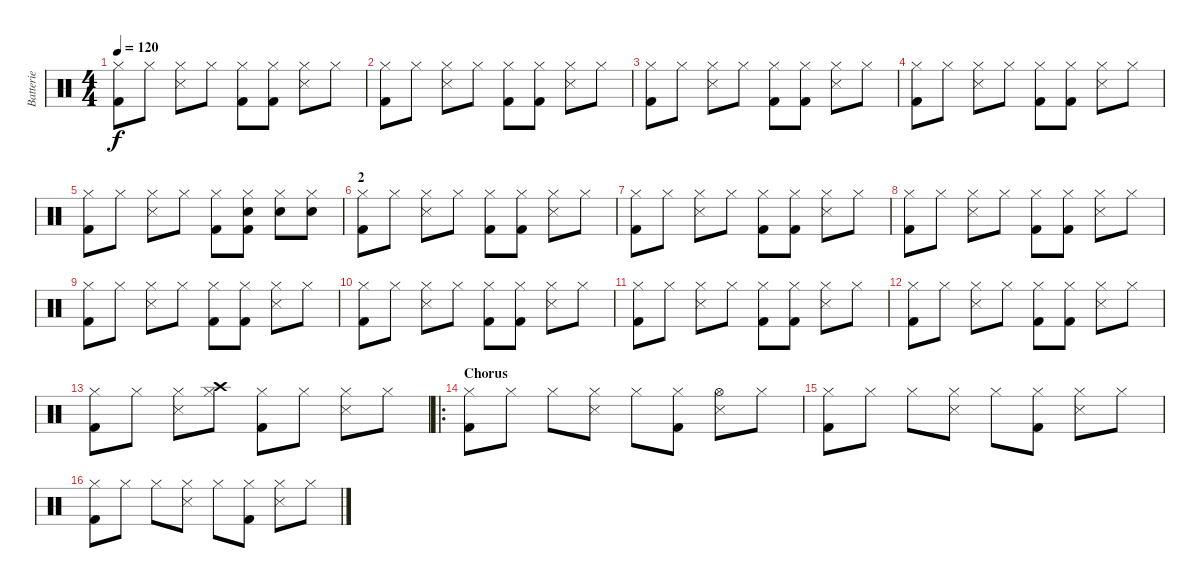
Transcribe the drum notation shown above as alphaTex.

\track ("Batterie" "Batterie") {instrument percussion}
\staff {score}
\articulation defaults
\ts (4 4)
\tempo 120
\clef neutral
\ks c
("Hi-Hat (closed)" "Kick (hit) 2").8{dy f} "Hi-Hat (closed)".8 ("Hi-Hat (closed)" "Snare (side stick) 3").8 "Hi-Hat (closed)".8 ("Hi-Hat (closed)" "Kick (hit) 2").8 ("Hi-Hat (closed)" "Kick (hit) 2").8 ("Hi-Hat (closed)" "Snare (side stick) 3").8 "Hi-Hat (closed)".8 |
("Hi-Hat (closed)" "Kick (hit) 2").8 "Hi-Hat (closed)".8 ("Hi-Hat (closed)" "Snare (side stick) 3").8 "Hi-Hat (closed)".8 ("Hi-Hat (closed)" "Kick (hit) 2").8 ("Hi-Hat (closed)" "Kick (hit) 2").8 ("Hi-Hat (closed)" "Snare (side stick) 3").8 "Hi-Hat (closed)".8 |
("Hi-Hat (closed)" "Kick (hit) 2").8 "Hi-Hat (closed)".8 ("Hi-Hat (closed)" "Snare (side stick) 3").8 "Hi-Hat (closed)".8 ("Hi-Hat (closed)" "Kick (hit) 2").8 ("Hi-Hat (closed)" "Kick (hit) 2").8 ("Hi-Hat (closed)" "Snare (side stick) 3").8 "Hi-Hat (closed)".8 |
("Hi-Hat (closed)" "Kick (hit) 2").8 "Hi-Hat (closed)".8 ("Hi-Hat (closed)" "Snare (side stick) 3").8 "Hi-Hat (closed)".8 ("Hi-Hat (closed)" "Kick (hit) 2").8 ("Hi-Hat (closed)" "Kick (hit) 2").8 ("Hi-Hat (closed)" "Snare (side stick) 3").8 "Hi-Hat (closed)".8 |
("Hi-Hat (closed)" "Kick (hit) 2").8 "Hi-Hat (closed)".8 ("Hi-Hat (closed)" "Snare (side stick) 3").8 "Hi-Hat (closed)".8 ("Hi-Hat (closed)" "Kick (hit) 2").8 ("Hi-Hat (closed)" "Snare (hit) 2" "Kick (hit) 2").8 ("Hi-Hat (closed)" "Snare (hit) 2").8 ("Hi-Hat (closed)" "Snare (hit) 2").8 |
\section ("" "2")
("Hi-Hat (closed)" "Kick (hit) 2").8 "Hi-Hat (closed)".8 ("Hi-Hat (closed)" "Snare (side stick) 3").8 "Hi-Hat (closed)".8 ("Hi-Hat (closed)" "Kick (hit) 2").8 ("Hi-Hat (closed)" "Kick (hit) 2").8 ("Hi-Hat (closed)" "Snare (side stick) 3").8 "Hi-Hat (closed)".8 |
("Hi-Hat (closed)" "Kick (hit) 2").8 "Hi-Hat (closed)".8 ("Hi-Hat (closed)" "Snare (side stick) 3").8 "Hi-Hat (closed)".8 ("Hi-Hat (closed)" "Kick (hit) 2").8 ("Hi-Hat (closed)" "Kick (hit) 2").8 ("Hi-Hat (closed)" "Snare (side stick) 3").8 "Hi-Hat (closed)".8 |
("Hi-Hat (closed)" "Kick (hit) 2").8 "Hi-Hat (closed)".8 ("Hi-Hat (closed)" "Snare (side stick) 3").8 "Hi-Hat (closed)".8 ("Hi-Hat (closed)" "Kick (hit) 2").8 ("Hi-Hat (closed)" "Kick (hit) 2").8 ("Hi-Hat (closed)" "Snare (side stick) 3").8 "Hi-Hat (closed)".8 |
("Hi-Hat (closed)" "Kick (hit) 2").8 "Hi-Hat (closed)".8 ("Hi-Hat (closed)" "Snare (side stick) 3").8 "Hi-Hat (closed)".8 ("Hi-Hat (closed)" "Kick (hit) 2").8 ("Hi-Hat (closed)" "Kick (hit) 2").8 ("Hi-Hat (closed)" "Snare (side stick) 3").8 "Hi-Hat (closed)".8 |
("Hi-Hat (closed)" "Kick (hit) 2").8 "Hi-Hat (closed)".8 ("Hi-Hat (closed)" "Snare (side stick) 3").8 "Hi-Hat (closed)".8 ("Hi-Hat (closed)" "Kick (hit) 2").8 ("Hi-Hat (closed)" "Kick (hit) 2").8 ("Hi-Hat (closed)" "Snare (side stick) 3").8 "Hi-Hat (closed)".8 |
("Hi-Hat (closed)" "Kick (hit) 2").8 "Hi-Hat (closed)".8 ("Hi-Hat (closed)" "Snare (side stick) 3").8 "Hi-Hat (closed)".8 ("Hi-Hat (closed)" "Kick (hit) 2").8 ("Hi-Hat (closed)" "Kick (hit) 2").8 ("Hi-Hat (closed)" "Snare (side stick) 3").8 "Hi-Hat (closed)".8 |
("Hi-Hat (closed)" "Kick (hit) 2").8 "Hi-Hat (closed)".8 ("Hi-Hat (closed)" "Snare (side stick) 3").8 "Hi-Hat (closed)".8 ("Hi-Hat (closed)" "Kick (hit) 2").8 ("Hi-Hat (closed)" "Kick (hit) 2").8 ("Hi-Hat (closed)" "Snare (side stick) 3").8 "Hi-Hat (closed)".8 |
("Hi-Hat (closed)" "Kick (hit) 2").8 "Hi-Hat (closed)".8 ("Hi-Hat (closed)" "Snare (side stick) 3").8 ("Crash high (hit)" "Hi-Hat (closed)").8 ("Hi-Hat (closed)" "Kick (hit) 2").8 "Hi-Hat (closed)".8 ("Hi-Hat (closed)" "Snare (side stick) 3").8 "Hi-Hat (closed)".8 |
\ro
\section ("" "Chorus")
("Hi-Hat (closed)" "Kick (hit) 2").8 "Hi-Hat (closed)".8 "Hi-Hat (closed)".8 ("Hi-Hat (closed)" "Snare (side stick) 3").8 "Hi-Hat (closed)".8 ("Hi-Hat (closed)" "Kick (hit) 2").8 ("Hi-Hat (open)" "Snare (side stick) 3").8 "Hi-Hat (closed)".8 |
("Hi-Hat (closed)" "Kick (hit) 2").8 "Hi-Hat (closed)".8 "Hi-Hat (closed)".8 ("Hi-Hat (closed)" "Snare (side stick) 3").8 "Hi-Hat (closed)".8 ("Hi-Hat (closed)" "Kick (hit) 2").8 ("Hi-Hat (closed)" "Snare (side stick) 3").8 "Hi-Hat (closed)".8 |
("Hi-Hat (closed)" "Kick (hit) 2").8 "Hi-Hat (closed)".8 "Hi-Hat (closed)".8 ("Hi-Hat (closed)" "Snare (side stick) 3").8 "Hi-Hat (closed)".8 ("Hi-Hat (closed)" "Kick (hit) 2").8 ("Hi-Hat (closed)" "Snare (side stick) 3").8 "Hi-Hat (closed)".8
